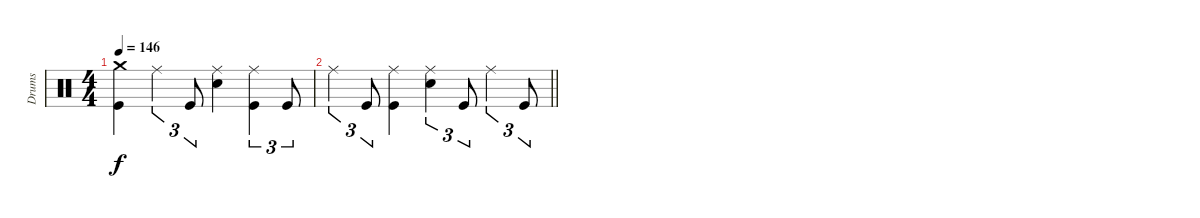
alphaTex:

\track ("Drums" "Drums") {instrument percussion}
\staff
\articulation defaults
\ts (4 4)
\tempo 146
\clef neutral
\ks c
("Crash medium (hit)" "Kick (hit)").4{dy f} "Ride (middle)".4{tu (3 2)} "Kick (hit)".8{tu (3 2)} ("Ride (middle)" "Electric Snare (hit)").4 ("Ride (middle)" "Kick (hit)").4{tu (3 2)} "Kick (hit)".8{tu (3 2)} |
\barLineRight lightlight "Ride (middle)".4{tu (3 2)} "Kick (hit)".8{tu (3 2)}
("Ride (middle)" "Kick (hit)").4 ("Ride (middle)" "Electric Snare (hit)").4{tu (3 2)} "Kick (hit)".8{tu (3 2)} "Ride (middle)".4{tu (3 2)} "Kick (hit)".8{tu (3 2)}
